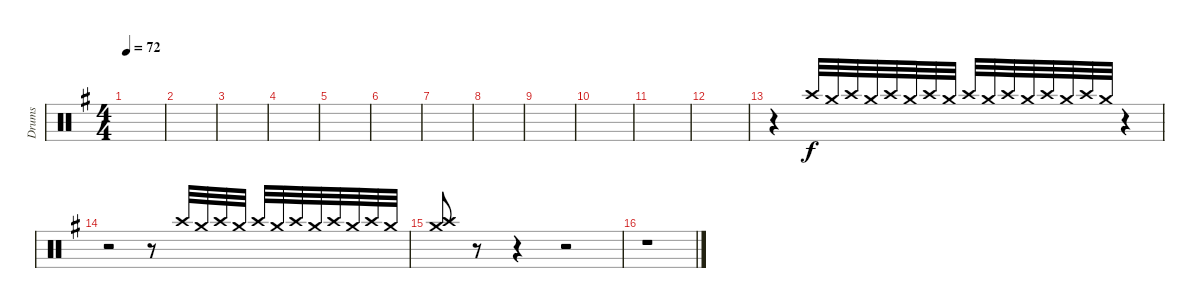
\track ("Drums" "Drums") {instrument percussion}
\staff {score}
\articulation defaults
\ts (4 4)
\tempo 72
\clef neutral
\ks g
|
|
|
|
|
|
|
|
|
|
|
|
r.4 "Crash high (hit)".32{beam Up} "Crash medium (hit)".32{beam Up} "Crash high (hit)".32{beam Up} "Crash medium (hit)".32{beam Up} "Crash high (hit)".32{beam Up} "Crash medium (hit)".32{beam Up} "Crash high (hit)".32{beam Up} "Crash medium (hit)".32{beam Up} "Crash high (hit)".32{beam Up} "Crash medium (hit)".32{beam Up} "Crash high (hit)".32{beam Up} "Crash medium (hit)".32{beam Up} "Crash high (hit)".32{beam Up} "Crash medium (hit)".32{beam Up} "Crash high (hit)".32{beam Up} "Crash medium (hit)".32{beam Up} r.4 |
r.2 r.8 "Crash high (hit)".32{beam Up} "Crash medium (hit)".32{beam Up} "Crash high (hit)".32{beam Up} "Crash medium (hit)".32{beam Up} "Crash high (hit)".32{beam Up} "Crash medium (hit)".32{beam Up} "Crash high (hit)".32{beam Up} "Crash medium (hit)".32{beam Up} "Crash high (hit)".32{beam Up} "Crash medium (hit)".32{beam Up} "Crash high (hit)".32{beam Up} "Crash medium (hit)".32{beam Up} |
("Crash medium (hit)" "Crash high (hit)").8{beam Up} r.8 r.4 r.2 |
r.1
